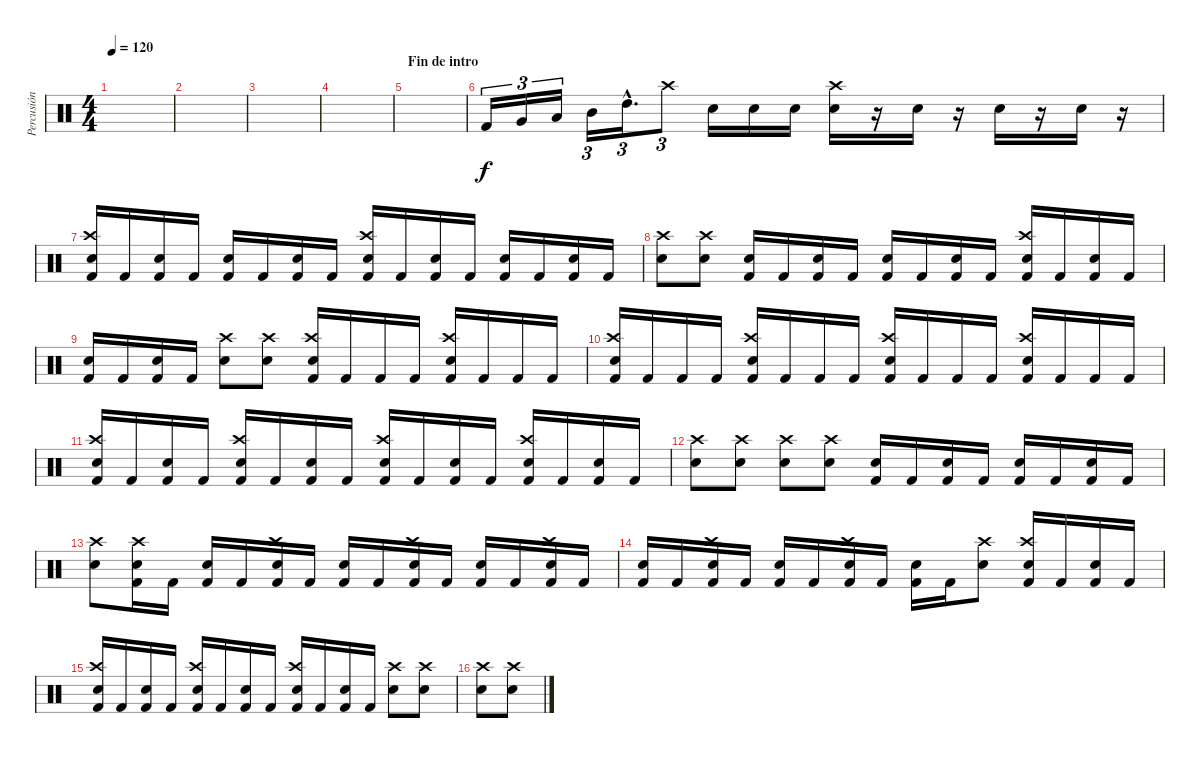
\track ("Percusión" "Percusión") {instrument percussion}
\staff {score}
\articulation defaults
\ts (4 4)
\tempo 120
\clef neutral
\ks c
|
|
|
|
\section ("" "Fin de intro")
|
"Kick (hit) 2".16{tu (3 2)} "Very Low Tom (hit)".16{tu (3 2)} "Low Tom (hit)".16{tu (3 2)} "Mid Tom (hit)".16{tu (3 2)} "High Tom (hit)"{hac}.16{d tu (3 2)} "Crash high (hit)".8{tu (3 2)} "Electric Snare (hit)".16 "Electric Snare (hit)".16 "Electric Snare (hit)".16 ("Crash high (hit)" "Electric Snare (hit)").16 r.16 "Electric Snare (hit)".16 r.16 "Electric Snare (hit)".16 r.16 "Electric Snare (hit)".16 r.16 |
("Crash high (hit)" "Kick (hit) 2" "Electric Snare (hit)").16 "Kick (hit) 2".16 ("Kick (hit) 2" "Electric Snare (hit)").16 "Kick (hit) 2".16 ("Kick (hit) 2" "Electric Snare (hit)").16 "Kick (hit) 2".16 ("Kick (hit) 2" "Electric Snare (hit)").16 "Kick (hit) 2".16 ("Crash high (hit)" "Kick (hit) 2" "Electric Snare (hit)").16 "Kick (hit) 2".16 ("Kick (hit) 2" "Electric Snare (hit)").16 "Kick (hit) 2".16 ("Kick (hit) 2" "Electric Snare (hit)").16 "Kick (hit) 2".16 ("Kick (hit) 2" "Electric Snare (hit)").16 "Kick (hit) 2".16 |
("Crash high (hit)" "Electric Snare (hit)").8 ("Crash high (hit)" "Electric Snare (hit)").8 ("Kick (hit) 2" "Electric Snare (hit)").16 "Kick (hit) 2".16 ("Kick (hit) 2" "Electric Snare (hit)").16 "Kick (hit) 2".16 ("Kick (hit) 2" "Electric Snare (hit)").16 "Kick (hit) 2".16 ("Kick (hit) 2" "Electric Snare (hit)").16 "Kick (hit) 2".16 ("Crash high (hit)" "Kick (hit) 2" "Electric Snare (hit)").16 "Kick (hit) 2".16 ("Kick (hit) 2" "Electric Snare (hit)").16 "Kick (hit) 2".16 |
("Kick (hit) 2" "Electric Snare (hit)").16 "Kick (hit) 2".16 ("Kick (hit) 2" "Electric Snare (hit)").16 "Kick (hit) 2".16 ("Crash high (hit)" "Electric Snare (hit)").8 ("Crash high (hit)" "Electric Snare (hit)").8 ("Crash high (hit)" "Kick (hit) 2" "Electric Snare (hit)").16 "Kick (hit) 2".16 "Kick (hit) 2".16 "Kick (hit) 2".16 ("Crash high (hit)" "Kick (hit) 2" "Electric Snare (hit)").16 "Kick (hit) 2".16 "Kick (hit) 2".16 "Kick (hit) 2".16 |
("Crash high (hit)" "Kick (hit) 2" "Electric Snare (hit)").16 "Kick (hit) 2".16 "Kick (hit) 2".16 "Kick (hit) 2".16 ("Crash high (hit)" "Kick (hit) 2" "Electric Snare (hit)").16 "Kick (hit) 2".16 "Kick (hit) 2".16 "Kick (hit) 2".16 ("Crash high (hit)" "Kick (hit) 2" "Electric Snare (hit)").16 "Kick (hit) 2".16 "Kick (hit) 2".16 "Kick (hit) 2".16 ("Crash high (hit)" "Kick (hit) 2" "Electric Snare (hit)").16 "Kick (hit) 2".16 "Kick (hit) 2".16 "Kick (hit) 2".16 |
("Crash high (hit)" "Kick (hit) 2" "Electric Snare (hit)").16 "Kick (hit) 2".16 ("Kick (hit) 2" "Electric Snare (hit)").16 "Kick (hit) 2".16 ("Crash high (hit)" "Kick (hit) 2" "Electric Snare (hit)").16 "Kick (hit) 2".16 ("Kick (hit) 2" "Electric Snare (hit)").16 "Kick (hit) 2".16 ("Crash high (hit)" "Kick (hit) 2" "Electric Snare (hit)").16 "Kick (hit) 2".16 ("Kick (hit) 2" "Electric Snare (hit)").16 "Kick (hit) 2".16 ("Crash high (hit)" "Kick (hit) 2" "Electric Snare (hit)").16 "Kick (hit) 2".16 ("Kick (hit) 2" "Electric Snare (hit)").16 "Kick (hit) 2".16 |
("Crash high (hit)" "Electric Snare (hit)").8 ("Crash high (hit)" "Electric Snare (hit)").8 ("Crash high (hit)" "Electric Snare (hit)").8 ("Crash high (hit)" "Electric Snare (hit)").8 ("Kick (hit) 2" "Electric Snare (hit)").16 "Kick (hit) 2".16 ("Kick (hit) 2" "Electric Snare (hit)").16 "Kick (hit) 2".16 ("Kick (hit) 2" "Electric Snare (hit)").16 "Kick (hit) 2".16 ("Kick (hit) 2" "Electric Snare (hit)").16 "Kick (hit) 2".16 |
("Crash high (hit)" "Electric Snare (hit)").8 ("Crash high (hit)" "Kick (hit) 2" "Electric Snare (hit)").16 "Kick (hit) 2".16 ("Kick (hit) 2" "Electric Snare (hit)").16 "Kick (hit) 2".16 ("Crash high (hit)" "Kick (hit) 2" "Electric Snare (hit)").16 "Kick (hit) 2".16 ("Kick (hit) 2" "Electric Snare (hit)").16 "Kick (hit) 2".16 ("Crash high (hit)" "Kick (hit) 2" "Electric Snare (hit)").16 "Kick (hit) 2".16 ("Kick (hit) 2" "Electric Snare (hit)").16 "Kick (hit) 2".16 ("Crash high (hit)" "Kick (hit) 2" "Electric Snare (hit)").16 "Kick (hit) 2".16 |
("Kick (hit) 2" "Electric Snare (hit)").16 "Kick (hit) 2".16 ("Crash high (hit)" "Kick (hit) 2" "Electric Snare (hit)").16 "Kick (hit) 2".16 ("Kick (hit) 2" "Electric Snare (hit)").16 "Kick (hit) 2".16 ("Crash high (hit)" "Kick (hit) 2" "Electric Snare (hit)").16 "Kick (hit) 2".16 ("Kick (hit) 2" "Electric Snare (hit)").16 "Kick (hit) 2".16 ("Crash high (hit)" "Electric Snare (hit)").8 ("Crash high (hit)" "Kick (hit) 2" "Electric Snare (hit)").16 "Kick (hit) 2".16 ("Kick (hit) 2" "Electric Snare (hit)").16 "Kick (hit) 2".16 |
("Crash high (hit)" "Kick (hit) 2" "Electric Snare (hit)").16 "Kick (hit) 2".16 ("Kick (hit) 2" "Electric Snare (hit)").16 "Kick (hit) 2".16 ("Crash high (hit)" "Kick (hit) 2" "Electric Snare (hit)").16 "Kick (hit) 2".16 ("Kick (hit) 2" "Electric Snare (hit)").16 "Kick (hit) 2".16 ("Crash high (hit)" "Kick (hit) 2" "Electric Snare (hit)").16 "Kick (hit) 2".16 ("Kick (hit) 2" "Electric Snare (hit)").16 "Kick (hit) 2".16 ("Crash high (hit)" "Electric Snare (hit)").8 ("Crash high (hit)" "Electric Snare (hit)").8 |
("Crash high (hit)" "Electric Snare (hit)").8 ("Crash high (hit)" "Electric Snare (hit)").8
